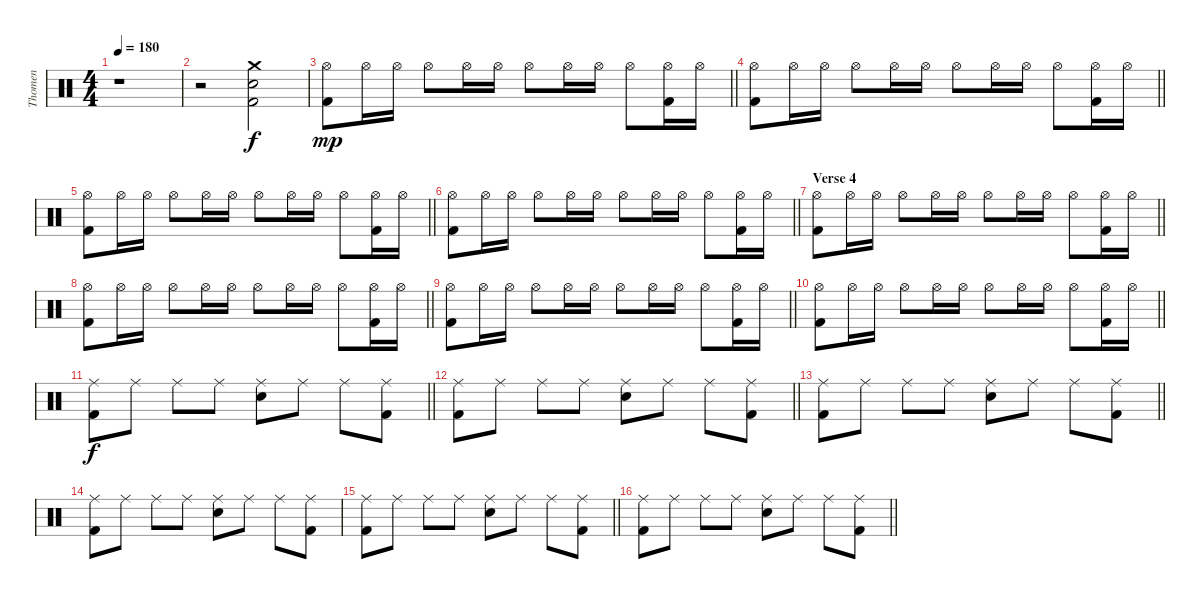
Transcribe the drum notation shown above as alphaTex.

\track ("Thomen" "Thomen") {instrument percussion}
\staff {score}
\articulation defaults
\ts (4 4)
\tempo 180
\clef neutral
\ks c
r.1{dy f} |
r.2 ("Kick (hit) 2" "Electric Snare (hit)" "Crash medium (hit)").2 |
\barLineRight lightlight
("Kick (hit) 2" "Hi-Hat (open)").8{dy mp} "Hi-Hat (open)".16 "Hi-Hat (open)".16 "Hi-Hat (open)".8 "Hi-Hat (open)".16 "Hi-Hat (open)".16 "Hi-Hat (open)".8 "Hi-Hat (open)".16 "Hi-Hat (open)".16 "Hi-Hat (open)".8 ("Kick (hit) 2" "Hi-Hat (open)").16 "Hi-Hat (open)".16 |
\barLineRight lightlight
("Kick (hit) 2" "Hi-Hat (open)").8 "Hi-Hat (open)".16 "Hi-Hat (open)".16 "Hi-Hat (open)".8 "Hi-Hat (open)".16 "Hi-Hat (open)".16 "Hi-Hat (open)".8 "Hi-Hat (open)".16 "Hi-Hat (open)".16 "Hi-Hat (open)".8 ("Kick (hit) 2" "Hi-Hat (open)").16 "Hi-Hat (open)".16 |
\barLineRight lightlight
("Kick (hit) 2" "Hi-Hat (open)").8 "Hi-Hat (open)".16 "Hi-Hat (open)".16 "Hi-Hat (open)".8 "Hi-Hat (open)".16 "Hi-Hat (open)".16 "Hi-Hat (open)".8 "Hi-Hat (open)".16 "Hi-Hat (open)".16 "Hi-Hat (open)".8 ("Kick (hit) 2" "Hi-Hat (open)").16 "Hi-Hat (open)".16 |
\barLineRight lightlight
("Kick (hit) 2" "Hi-Hat (open)").8 "Hi-Hat (open)".16 "Hi-Hat (open)".16 "Hi-Hat (open)".8 "Hi-Hat (open)".16 "Hi-Hat (open)".16 "Hi-Hat (open)".8 "Hi-Hat (open)".16 "Hi-Hat (open)".16 "Hi-Hat (open)".8 ("Kick (hit) 2" "Hi-Hat (open)").16 "Hi-Hat (open)".16 |
\section ("" "Verse 4")
\barLineRight lightlight
("Kick (hit) 2" "Hi-Hat (open)").8 "Hi-Hat (open)".16 "Hi-Hat (open)".16 "Hi-Hat (open)".8 "Hi-Hat (open)".16 "Hi-Hat (open)".16 "Hi-Hat (open)".8 "Hi-Hat (open)".16 "Hi-Hat (open)".16 "Hi-Hat (open)".8 ("Kick (hit) 2" "Hi-Hat (open)").16 "Hi-Hat (open)".16 |
\barLineRight lightlight
("Kick (hit) 2" "Hi-Hat (open)").8 "Hi-Hat (open)".16 "Hi-Hat (open)".16 "Hi-Hat (open)".8 "Hi-Hat (open)".16 "Hi-Hat (open)".16 "Hi-Hat (open)".8 "Hi-Hat (open)".16 "Hi-Hat (open)".16 "Hi-Hat (open)".8 ("Kick (hit) 2" "Hi-Hat (open)").16 "Hi-Hat (open)".16 |
\barLineRight lightlight
("Kick (hit) 2" "Hi-Hat (open)").8 "Hi-Hat (open)".16 "Hi-Hat (open)".16 "Hi-Hat (open)".8 "Hi-Hat (open)".16 "Hi-Hat (open)".16 "Hi-Hat (open)".8 "Hi-Hat (open)".16 "Hi-Hat (open)".16 "Hi-Hat (open)".8 ("Kick (hit) 2" "Hi-Hat (open)").16 "Hi-Hat (open)".16 |
\barLineRight lightlight
("Kick (hit) 2" "Hi-Hat (open)").8 "Hi-Hat (open)".16 "Hi-Hat (open)".16 "Hi-Hat (open)".8 "Hi-Hat (open)".16 "Hi-Hat (open)".16 "Hi-Hat (open)".8 "Hi-Hat (open)".16 "Hi-Hat (open)".16 "Hi-Hat (open)".8 ("Kick (hit) 2" "Hi-Hat (open)").16 "Hi-Hat (open)".16 |
\barLineRight lightlight
("Kick (hit) 2" "Ride (middle)").8{dy f} "Ride (middle)".8 "Ride (middle)".8 "Ride (middle)".8 ("Electric Snare (hit)" "Ride (middle)").8 "Ride (middle)".8 "Ride (middle)".8 ("Kick (hit) 2" "Ride (middle)").8 |
\barLineRight lightlight
("Kick (hit) 2" "Ride (middle)").8 "Ride (middle)".8 "Ride (middle)".8 "Ride (middle)".8 ("Electric Snare (hit)" "Ride (middle)").8 "Ride (middle)".8 "Ride (middle)".8 ("Kick (hit) 2" "Ride (middle)").8 |
\barLineRight lightlight
("Kick (hit) 2" "Ride (middle)").8 "Ride (middle)".8 "Ride (middle)".8 "Ride (middle)".8 ("Electric Snare (hit)" "Ride (middle)").8 "Ride (middle)".8 "Ride (middle)".8 ("Kick (hit) 2" "Ride (middle)").8 |
("Kick (hit) 2" "Ride (middle)").8 "Ride (middle)".8 "Ride (middle)".8 "Ride (middle)".8 ("Electric Snare (hit)" "Ride (middle)").8 "Ride (middle)".8 "Ride (middle)".8 ("Kick (hit) 2" "Ride (middle)").8 |
\barLineRight lightlight
("Kick (hit) 2" "Ride (middle)").8 "Ride (middle)".8 "Ride (middle)".8 "Ride (middle)".8 ("Electric Snare (hit)" "Ride (middle)").8 "Ride (middle)".8 "Ride (middle)".8 ("Kick (hit) 2" "Ride (middle)").8 |
\barLineRight lightlight
("Kick (hit) 2" "Ride (middle)").8 "Ride (middle)".8 "Ride (middle)".8 "Ride (middle)".8 ("Electric Snare (hit)" "Ride (middle)").8 "Ride (middle)".8 "Ride (middle)".8 ("Kick (hit) 2" "Ride (middle)").8
